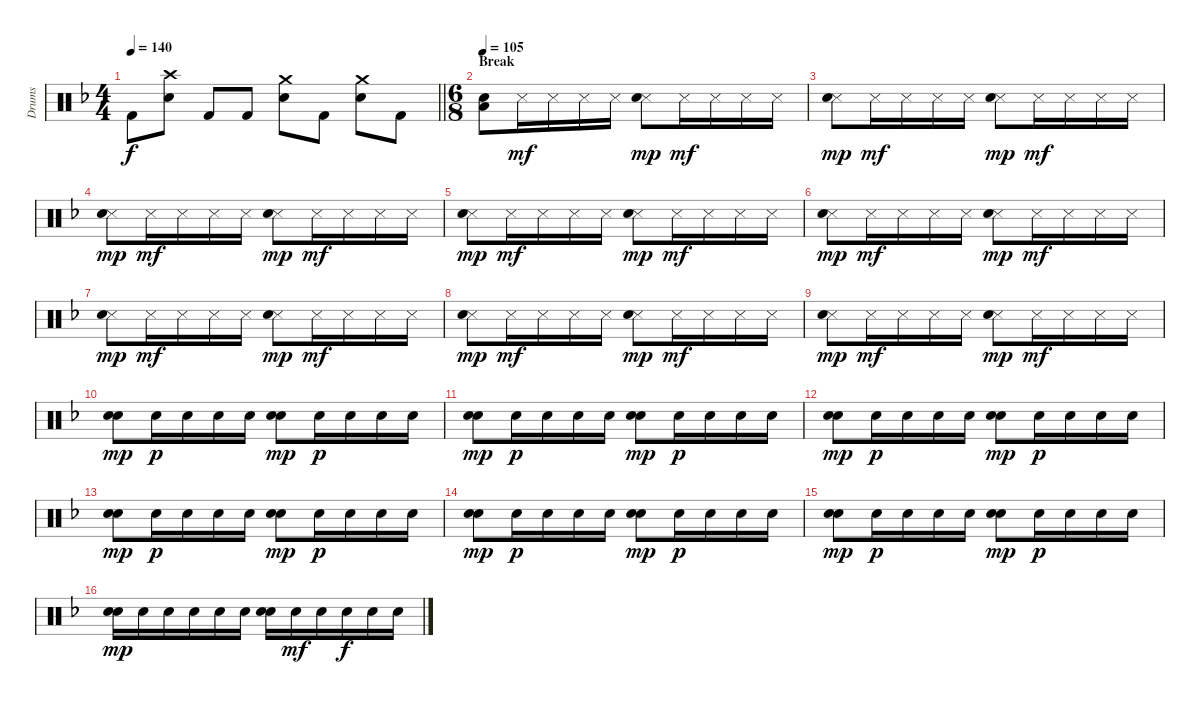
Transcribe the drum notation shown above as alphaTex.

\track ("Drums" "Drums") {instrument percussion}
\staff {score}
\articulation defaults
\ts (4 4)
\tempo 140
\clef neutral
\barLineRight lightlight
\ks dminor "Kick (hit) 2".8{dy f}
("Electric Snare (hit)" "Crash high (hit)").8 "Kick (hit) 2".8 "Kick (hit) 2".8 ("Electric Snare (hit)" "Crash medium (hit)").8 "Kick (hit) 2".8 ("Electric Snare (hit)" "Crash medium (hit)").8 "Kick (hit) 2".8 |
\ts (6 8)
\section ("" "Break")
\tempo 105
("Electric Snare (hit)" "Low Floor Tom (hit)").8 "Snare (side stick) 3".16{dy mf} "Snare (side stick) 3".16 "Snare (side stick) 3".16 "Snare (side stick) 3".16 ("Snare (side stick) 3" "Hand Clap (hit)").8{dy mp} "Snare (side stick) 3".16{dy mf} "Snare (side stick) 3".16 "Snare (side stick) 3".16 "Snare (side stick) 3".16 |
("Snare (side stick) 3" "Hand Clap (hit)").8{dy mp} "Snare (side stick) 3".16{dy mf} "Snare (side stick) 3".16 "Snare (side stick) 3".16 "Snare (side stick) 3".16 ("Snare (side stick) 3" "Hand Clap (hit)").8{dy mp} "Snare (side stick) 3".16{dy mf} "Snare (side stick) 3".16 "Snare (side stick) 3".16 "Snare (side stick) 3".16 |
("Snare (side stick) 3" "Hand Clap (hit)").8{dy mp} "Snare (side stick) 3".16{dy mf} "Snare (side stick) 3".16 "Snare (side stick) 3".16 "Snare (side stick) 3".16 ("Snare (side stick) 3" "Hand Clap (hit)").8{dy mp} "Snare (side stick) 3".16{dy mf} "Snare (side stick) 3".16 "Snare (side stick) 3".16 "Snare (side stick) 3".16 |
("Snare (side stick) 3" "Hand Clap (hit)").8{dy mp} "Snare (side stick) 3".16{dy mf} "Snare (side stick) 3".16 "Snare (side stick) 3".16 "Snare (side stick) 3".16 ("Snare (side stick) 3" "Hand Clap (hit)").8{dy mp} "Snare (side stick) 3".16{dy mf} "Snare (side stick) 3".16 "Snare (side stick) 3".16 "Snare (side stick) 3".16 |
("Snare (side stick) 3" "Hand Clap (hit)").8{dy mp} "Snare (side stick) 3".16{dy mf} "Snare (side stick) 3".16 "Snare (side stick) 3".16 "Snare (side stick) 3".16 ("Snare (side stick) 3" "Hand Clap (hit)").8{dy mp} "Snare (side stick) 3".16{dy mf} "Snare (side stick) 3".16 "Snare (side stick) 3".16 "Snare (side stick) 3".16 |
("Snare (side stick) 3" "Hand Clap (hit)").8{dy mp} "Snare (side stick) 3".16{dy mf} "Snare (side stick) 3".16 "Snare (side stick) 3".16 "Snare (side stick) 3".16 ("Snare (side stick) 3" "Hand Clap (hit)").8{dy mp} "Snare (side stick) 3".16{dy mf} "Snare (side stick) 3".16 "Snare (side stick) 3".16 "Snare (side stick) 3".16 |
("Snare (side stick) 3" "Hand Clap (hit)").8{dy mp} "Snare (side stick) 3".16{dy mf} "Snare (side stick) 3".16 "Snare (side stick) 3".16 "Snare (side stick) 3".16 ("Snare (side stick) 3" "Hand Clap (hit)").8{dy mp} "Snare (side stick) 3".16{dy mf} "Snare (side stick) 3".16 "Snare (side stick) 3".16 "Snare (side stick) 3".16 |
("Snare (side stick) 3" "Hand Clap (hit)").8{dy mp} "Snare (side stick) 3".16{dy mf} "Snare (side stick) 3".16 "Snare (side stick) 3".16 "Snare (side stick) 3".16 ("Snare (side stick) 3" "Hand Clap (hit)").8{dy mp} "Snare (side stick) 3".16{dy mf} "Snare (side stick) 3".16 "Snare (side stick) 3".16 "Snare (side stick) 3".16 |
("Electric Snare (hit)" "Hand Clap (hit)").8{dy mp} "Electric Snare (hit)".16{dy p} "Electric Snare (hit)".16 "Electric Snare (hit)".16 "Electric Snare (hit)".16 ("Electric Snare (hit)" "Hand Clap (hit)").8{dy mp} "Electric Snare (hit)".16{dy p} "Electric Snare (hit)".16 "Electric Snare (hit)".16 "Electric Snare (hit)".16 |
("Electric Snare (hit)" "Hand Clap (hit)").8{dy mp} "Electric Snare (hit)".16{dy p} "Electric Snare (hit)".16 "Electric Snare (hit)".16 "Electric Snare (hit)".16 ("Electric Snare (hit)" "Hand Clap (hit)").8{dy mp} "Electric Snare (hit)".16{dy p} "Electric Snare (hit)".16 "Electric Snare (hit)".16 "Electric Snare (hit)".16 |
("Electric Snare (hit)" "Hand Clap (hit)").8{dy mp} "Electric Snare (hit)".16{dy p} "Electric Snare (hit)".16 "Electric Snare (hit)".16 "Electric Snare (hit)".16 ("Electric Snare (hit)" "Hand Clap (hit)").8{dy mp} "Electric Snare (hit)".16{dy p} "Electric Snare (hit)".16 "Electric Snare (hit)".16 "Electric Snare (hit)".16 |
("Electric Snare (hit)" "Hand Clap (hit)").8{dy mp} "Electric Snare (hit)".16{dy p} "Electric Snare (hit)".16 "Electric Snare (hit)".16 "Electric Snare (hit)".16 ("Electric Snare (hit)" "Hand Clap (hit)").8{dy mp} "Electric Snare (hit)".16{dy p} "Electric Snare (hit)".16 "Electric Snare (hit)".16 "Electric Snare (hit)".16 |
("Electric Snare (hit)" "Hand Clap (hit)").8{dy mp} "Electric Snare (hit)".16{dy p} "Electric Snare (hit)".16 "Electric Snare (hit)".16 "Electric Snare (hit)".16 ("Electric Snare (hit)" "Hand Clap (hit)").8{dy mp} "Electric Snare (hit)".16{dy p} "Electric Snare (hit)".16 "Electric Snare (hit)".16 "Electric Snare (hit)".16 |
("Electric Snare (hit)" "Hand Clap (hit)").8{dy mp} "Electric Snare (hit)".16{dy p} "Electric Snare (hit)".16 "Electric Snare (hit)".16 "Electric Snare (hit)".16 ("Electric Snare (hit)" "Hand Clap (hit)").8{dy mp} "Electric Snare (hit)".16{dy p} "Electric Snare (hit)".16 "Electric Snare (hit)".16 "Electric Snare (hit)".16 |
("Electric Snare (hit)" "Hand Clap (hit)").16{dy mp} "Electric Snare (hit)".16 "Electric Snare (hit)".16 "Electric Snare (hit)".16 "Electric Snare (hit)".16 "Electric Snare (hit)".16 ("Electric Snare (hit)" "Hand Clap (hit)").16 "Electric Snare (hit)".16{dy mf} "Electric Snare (hit)".16 "Electric Snare (hit)".16{dy f} "Electric Snare (hit)".16 "Electric Snare (hit)".16
